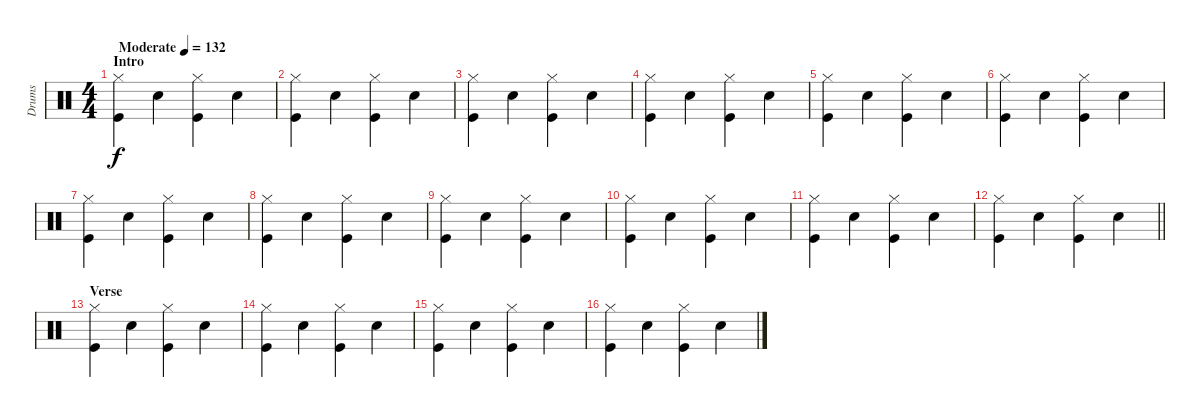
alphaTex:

\track ("Drums" "Drums") {instrument percussion}
\staff {score}
\articulation defaults
\ts (4 4)
\section ("" "Intro")
\tempo (132 "Moderate")
\clef neutral
\ks c
("Kick (hit)" "Hi-Hat (closed)").4{dy f} "Snare (hit) 2".4 ("Kick (hit)" "Hi-Hat (closed)").4 "Snare (hit) 2".4 |
("Kick (hit)" "Hi-Hat (closed)").4 "Snare (hit) 2".4 ("Kick (hit)" "Hi-Hat (closed)").4 "Snare (hit) 2".4 |
("Kick (hit)" "Hi-Hat (closed)").4 "Snare (hit) 2".4 ("Kick (hit)" "Hi-Hat (closed)").4 "Snare (hit) 2".4 |
("Kick (hit)" "Hi-Hat (closed)").4 "Snare (hit) 2".4 ("Kick (hit)" "Hi-Hat (closed)").4 "Snare (hit) 2".4 |
("Kick (hit)" "Hi-Hat (closed)").4 "Snare (hit) 2".4 ("Kick (hit)" "Hi-Hat (closed)").4 "Snare (hit) 2".4 |
("Kick (hit)" "Hi-Hat (closed)").4 "Snare (hit) 2".4 ("Kick (hit)" "Hi-Hat (closed)").4 "Snare (hit) 2".4 |
("Kick (hit)" "Hi-Hat (closed)").4 "Snare (hit) 2".4 ("Kick (hit)" "Hi-Hat (closed)").4 "Snare (hit) 2".4 |
("Kick (hit)" "Hi-Hat (closed)").4 "Snare (hit) 2".4 ("Kick (hit)" "Hi-Hat (closed)").4 "Snare (hit) 2".4 |
("Kick (hit)" "Hi-Hat (closed)").4 "Snare (hit) 2".4 ("Kick (hit)" "Hi-Hat (closed)").4 "Snare (hit) 2".4 |
("Kick (hit)" "Hi-Hat (closed)").4 "Snare (hit) 2".4 ("Kick (hit)" "Hi-Hat (closed)").4 "Snare (hit) 2".4 |
("Kick (hit)" "Hi-Hat (closed)").4 "Snare (hit) 2".4 ("Kick (hit)" "Hi-Hat (closed)").4 "Snare (hit) 2".4 |
\barLineRight lightlight
("Kick (hit)" "Hi-Hat (closed)").4 "Snare (hit) 2".4 ("Kick (hit)" "Hi-Hat (closed)").4 "Snare (hit) 2".4 |
\section ("" "Verse")
("Kick (hit)" "Hi-Hat (closed)").4 "Snare (hit) 2".4 ("Kick (hit)" "Hi-Hat (closed)").4 "Snare (hit) 2".4 |
("Kick (hit)" "Hi-Hat (closed)").4 "Snare (hit) 2".4 ("Kick (hit)" "Hi-Hat (closed)").4 "Snare (hit) 2".4 |
("Kick (hit)" "Hi-Hat (closed)").4 "Snare (hit) 2".4 ("Kick (hit)" "Hi-Hat (closed)").4 "Snare (hit) 2".4 |
("Kick (hit)" "Hi-Hat (closed)").4 "Snare (hit) 2".4 ("Kick (hit)" "Hi-Hat (closed)").4 "Snare (hit) 2".4
